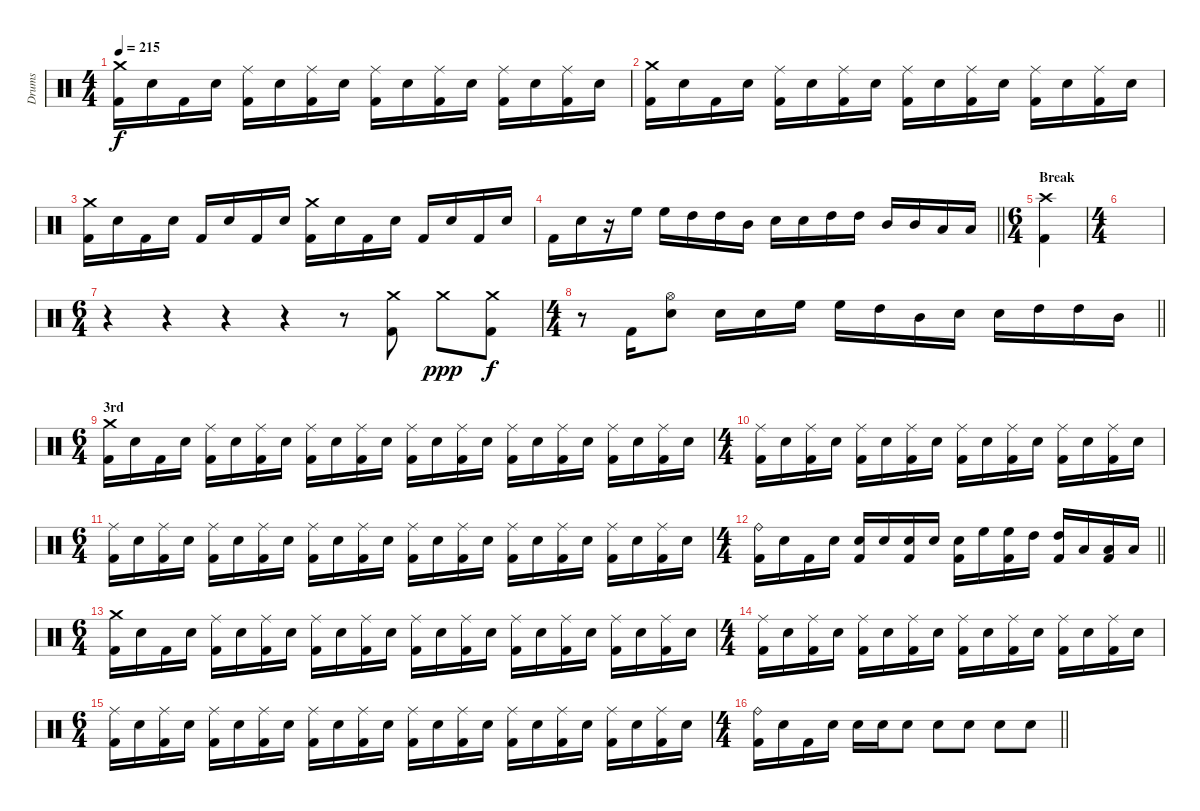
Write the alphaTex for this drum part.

\track ("Drums" "Drums") {instrument percussion}
\staff {score}
\articulation defaults
\ts (4 4)
\tempo 215
\clef neutral
\ks c
("Crash medium (hit)" "Kick (hit) 2").16{dy f} "Snare (hit) 2".16 "Kick (hit) 2".16 "Snare (hit) 2".16 ("Ride (middle)" "Kick (hit) 2").16 "Snare (hit) 2".16 ("Ride (middle)" "Kick (hit) 2").16 "Snare (hit) 2".16 ("Ride (middle)" "Kick (hit) 2").16 "Snare (hit) 2".16 ("Ride (middle)" "Kick (hit) 2").16 "Snare (hit) 2".16 ("Ride (middle)" "Kick (hit) 2").16 "Snare (hit) 2".16 ("Ride (middle)" "Kick (hit) 2").16 "Snare (hit) 2".16 |
("Crash medium (hit)" "Kick (hit) 2").16 "Snare (hit) 2".16 "Kick (hit) 2".16 "Snare (hit) 2".16 ("Ride (middle)" "Kick (hit) 2").16 "Snare (hit) 2".16 ("Ride (middle)" "Kick (hit) 2").16 "Snare (hit) 2".16 ("Ride (middle)" "Kick (hit) 2").16 "Snare (hit) 2".16 ("Ride (middle)" "Kick (hit) 2").16 "Snare (hit) 2".16 ("Ride (middle)" "Kick (hit) 2").16 "Snare (hit) 2".16 ("Ride (middle)" "Kick (hit) 2").16 "Snare (hit) 2".16 |
("Crash medium (hit)" "Kick (hit) 2").16 "Snare (hit) 2".16 "Kick (hit) 2".16 "Snare (hit) 2".16 "Kick (hit) 2".16 "Snare (hit) 2".16 "Kick (hit) 2".16 "Snare (hit) 2".16 ("Crash medium (hit)" "Kick (hit) 2").16 "Snare (hit) 2".16 "Kick (hit) 2".16 "Snare (hit) 2".16 "Kick (hit) 2".16 "Snare (hit) 2".16 "Kick (hit) 2".16 "Snare (hit) 2".16 |
\barLineRight lightlight "Kick (hit) 2".16 "Snare (hit) 2".16
r.16 "High Floor Tom (hit)".16 "High Floor Tom (hit)".16 "High Tom (hit)".16 "High Tom (hit)".16 "Mid Tom (hit)".16 "Snare (hit) 2".16 "Snare (hit) 2".16 "High Tom (hit)".16 "High Tom (hit)".16 "Mid Tom (hit)".16 "Mid Tom (hit)".16 "Low Tom (hit)".16 "Low Tom (hit)".16 |
\ts (6 4)
\section ("" "Break")
("Crash high (hit)" "Kick (hit) 2").4 |
\ts (4 4)
|
\ts (6 4)
r.4 r.4 r.4 r.4 r.8 ("Crash medium (hit)" "Kick (hit) 2").8 "Crash medium (hit)".8{dy ppp} ("Crash medium (hit)" "Kick (hit) 2").8{dy f} |
\ts (4 4)
\barLineRight lightlight
r.8 "Kick (hit) 2".16 ("Hi-Hat (open)" "Snare (hit) 2").8 "Snare (hit) 2".16 "Snare (hit) 2".16 "High Floor Tom (hit)".16 "High Floor Tom (hit)".16 "High Tom (hit)".16 "Mid Tom (hit)".16 "Snare (hit) 2".16 "Snare (hit) 2".16 "High Tom (hit)".16 "High Tom (hit)".16 "Mid Tom (hit)".16 |
\ts (6 4)
\section ("" "3rd")
("Crash medium (hit)" "Kick (hit) 2").16 "Snare (hit) 2".16 "Kick (hit) 2".16 "Snare (hit) 2".16 ("Ride (middle)" "Kick (hit) 2").16 "Snare (hit) 2".16 ("Ride (middle)" "Kick (hit) 2").16 "Snare (hit) 2".16 ("Ride (middle)" "Kick (hit) 2").16 "Snare (hit) 2".16 ("Ride (middle)" "Kick (hit) 2").16 "Snare (hit) 2".16 ("Ride (middle)" "Kick (hit) 2").16 "Snare (hit) 2".16 ("Ride (middle)" "Kick (hit) 2").16 "Snare (hit) 2".16 ("Ride (middle)" "Kick (hit) 2").16 "Snare (hit) 2".16 ("Ride (middle)" "Kick (hit) 2").16 "Snare (hit) 2".16 ("Ride (middle)" "Kick (hit) 2").16 "Snare (hit) 2".16 ("Ride (middle)" "Kick (hit) 2").16 "Snare (hit) 2".16 |
\ts (4 4)
("Ride (middle)" "Kick (hit) 2").16 "Snare (hit) 2".16 ("Ride (middle)" "Kick (hit) 2").16 "Snare (hit) 2".16 ("Ride (middle)" "Kick (hit) 2").16 "Snare (hit) 2".16 ("Ride (middle)" "Kick (hit) 2").16 "Snare (hit) 2".16 ("Ride (middle)" "Kick (hit) 2").16 "Snare (hit) 2".16 ("Ride (middle)" "Kick (hit) 2").16 "Snare (hit) 2".16 ("Ride (middle)" "Kick (hit) 2").16 "Snare (hit) 2".16 ("Ride (middle)" "Kick (hit) 2").16 "Snare (hit) 2".16 |
\ts (6 4)
("Ride (middle)" "Kick (hit) 2").16 "Snare (hit) 2".16 ("Ride (middle)" "Kick (hit) 2").16 "Snare (hit) 2".16 ("Ride (middle)" "Kick (hit) 2").16 "Snare (hit) 2".16 ("Ride (middle)" "Kick (hit) 2").16 "Snare (hit) 2".16 ("Ride (middle)" "Kick (hit) 2").16 "Snare (hit) 2".16 ("Ride (middle)" "Kick (hit) 2").16 "Snare (hit) 2".16 ("Ride (middle)" "Kick (hit) 2").16 "Snare (hit) 2".16 ("Ride (middle)" "Kick (hit) 2").16 "Snare (hit) 2".16 ("Ride (middle)" "Kick (hit) 2").16 "Snare (hit) 2".16 ("Ride (middle)" "Kick (hit) 2").16 "Snare (hit) 2".16 ("Ride (middle)" "Kick (hit) 2").16 "Snare (hit) 2".16 ("Ride (middle)" "Kick (hit) 2").16 "Snare (hit) 2".16 |
\ts (4 4)
\barLineRight lightlight
("Ride (bell)" "Kick (hit) 2").16 "Snare (hit) 2".16 "Kick (hit) 2".16 "Snare (hit) 2".16 ("Snare (hit) 2" "Kick (hit) 2").16 "Snare (hit) 2".16 ("Snare (hit) 2" "Kick (hit) 2").16 "Snare (hit) 2".16 ("Snare (hit) 2" "Kick (hit) 2").16 "High Floor Tom (hit)".16 ("High Floor Tom (hit)" "Kick (hit) 2").16 "High Tom (hit)".16 ("High Tom (hit)" "Kick (hit) 2").16 "Low Tom (hit)".16 ("Low Tom (hit)" "Kick (hit) 2").16 "Low Tom (hit)".16 |
\ts (6 4)
("Crash medium (hit)" "Kick (hit) 2").16 "Snare (hit) 2".16 "Kick (hit) 2".16 "Snare (hit) 2".16 ("Ride (middle)" "Kick (hit) 2").16 "Snare (hit) 2".16 ("Ride (middle)" "Kick (hit) 2").16 "Snare (hit) 2".16 ("Ride (middle)" "Kick (hit) 2").16 "Snare (hit) 2".16 ("Ride (middle)" "Kick (hit) 2").16 "Snare (hit) 2".16 ("Ride (middle)" "Kick (hit) 2").16 "Snare (hit) 2".16 ("Ride (middle)" "Kick (hit) 2").16 "Snare (hit) 2".16 ("Ride (middle)" "Kick (hit) 2").16 "Snare (hit) 2".16 ("Ride (middle)" "Kick (hit) 2").16 "Snare (hit) 2".16 ("Ride (middle)" "Kick (hit) 2").16 "Snare (hit) 2".16 ("Ride (middle)" "Kick (hit) 2").16 "Snare (hit) 2".16 |
\ts (4 4)
("Ride (middle)" "Kick (hit) 2").16 "Snare (hit) 2".16 ("Ride (middle)" "Kick (hit) 2").16 "Snare (hit) 2".16 ("Ride (middle)" "Kick (hit) 2").16 "Snare (hit) 2".16 ("Ride (middle)" "Kick (hit) 2").16 "Snare (hit) 2".16 ("Ride (middle)" "Kick (hit) 2").16 "Snare (hit) 2".16 ("Ride (middle)" "Kick (hit) 2").16 "Snare (hit) 2".16 ("Ride (middle)" "Kick (hit) 2").16 "Snare (hit) 2".16 ("Ride (middle)" "Kick (hit) 2").16 "Snare (hit) 2".16 |
\ts (6 4)
("Ride (middle)" "Kick (hit) 2").16 "Snare (hit) 2".16 ("Ride (middle)" "Kick (hit) 2").16 "Snare (hit) 2".16 ("Ride (middle)" "Kick (hit) 2").16 "Snare (hit) 2".16 ("Ride (middle)" "Kick (hit) 2").16 "Snare (hit) 2".16 ("Ride (middle)" "Kick (hit) 2").16 "Snare (hit) 2".16 ("Ride (middle)" "Kick (hit) 2").16 "Snare (hit) 2".16 ("Ride (middle)" "Kick (hit) 2").16 "Snare (hit) 2".16 ("Ride (middle)" "Kick (hit) 2").16 "Snare (hit) 2".16 ("Ride (middle)" "Kick (hit) 2").16 "Snare (hit) 2".16 ("Ride (middle)" "Kick (hit) 2").16 "Snare (hit) 2".16 ("Ride (middle)" "Kick (hit) 2").16 "Snare (hit) 2".16 ("Ride (middle)" "Kick (hit) 2").16 "Snare (hit) 2".16 |
\ts (4 4)
\barLineRight lightlight
("Ride (bell)" "Kick (hit) 2").16 "Snare (hit) 2".16 "Kick (hit) 2".16 "Snare (hit) 2".16 "Snare (hit) 2".16 "Snare (hit) 2".16 "Snare (hit) 2".8 "Snare (hit) 2".8 "Snare (hit) 2".8 "Snare (hit) 2".8 "Snare (hit) 2".8
